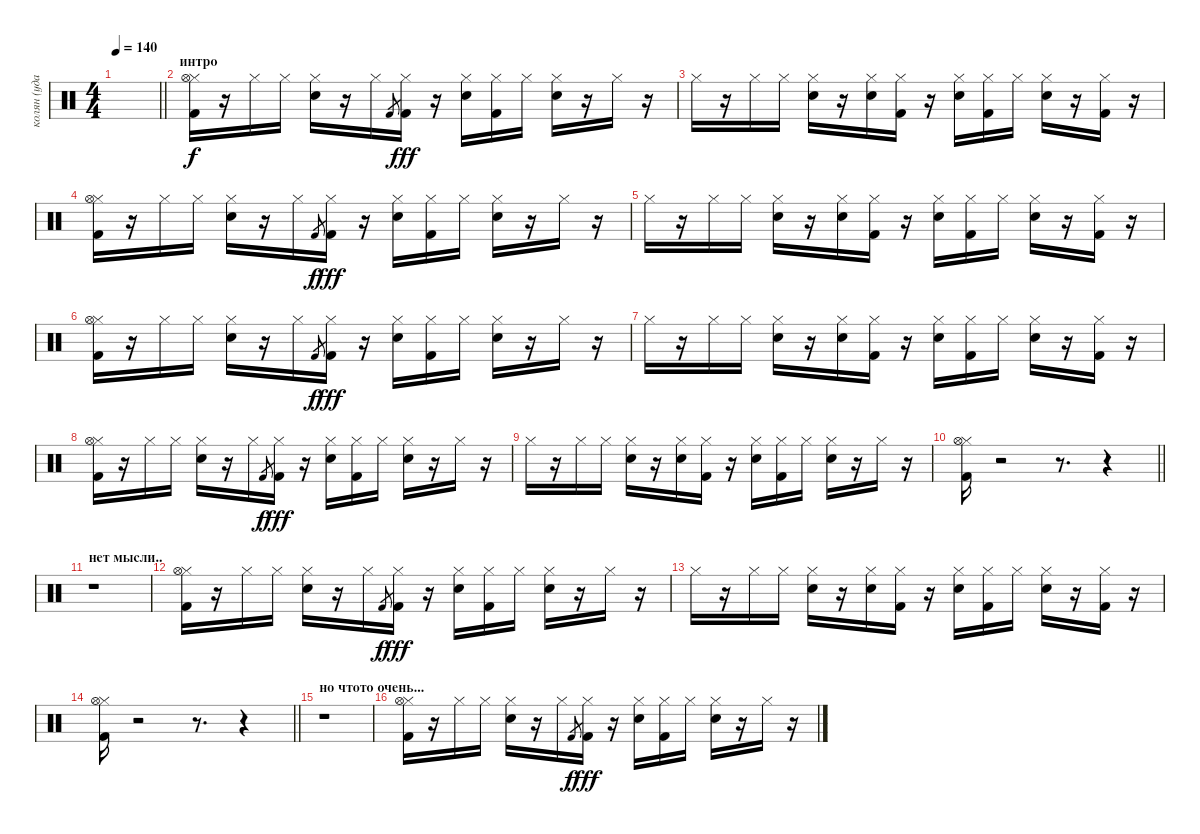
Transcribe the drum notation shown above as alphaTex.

\track ("колян (ударные)" "колян (уда") {instrument percussion}
\staff {score}
\articulation defaults
\ts (4 4)
\tempo 140
\clef neutral
\barLineRight lightlight
\ks c
|
\section ("" "интро")
("Hi-Hat (closed)" "Hi-Hat (open)" "Kick (hit) 2").16 r.16 "Hi-Hat (closed)".16 "Hi-Hat (closed)".16 ("Hi-Hat (closed)" "Electric Snare (hit)").16 r.16 "Hi-Hat (closed)".16 "Kick (hit) 2".8{gr dy f} ("Hi-Hat (closed)" "Kick (hit) 2").16{dy fff} r.16 ("Hi-Hat (closed)" "Electric Snare (hit)").16 ("Hi-Hat (closed)" "Kick (hit) 2").16 "Hi-Hat (closed)".16 ("Hi-Hat (closed)" "Electric Snare (hit)").16 r.16 "Hi-Hat (closed)".16 r.16 |
"Hi-Hat (closed)".16 r.16 "Hi-Hat (closed)".16 "Hi-Hat (closed)".16 ("Hi-Hat (closed)" "Electric Snare (hit)").16 r.16 ("Hi-Hat (closed)" "Electric Snare (hit)").16 ("Hi-Hat (closed)" "Kick (hit) 2").16 r.16 ("Hi-Hat (closed)" "Electric Snare (hit)").16 ("Hi-Hat (closed)" "Kick (hit) 2").16 "Hi-Hat (closed)".16 ("Hi-Hat (closed)" "Electric Snare (hit)").16 r.16 ("Hi-Hat (closed)" "Kick (hit) 2").16 r.16 |
("Hi-Hat (closed)" "Hi-Hat (open)" "Kick (hit) 2").16 r.16 "Hi-Hat (closed)".16 "Hi-Hat (closed)".16 ("Hi-Hat (closed)" "Electric Snare (hit)").16 r.16 "Hi-Hat (closed)".16 "Kick (hit) 2".8{gr dy f} ("Hi-Hat (closed)" "Kick (hit) 2").16{dy fff} r.16 ("Hi-Hat (closed)" "Electric Snare (hit)").16 ("Hi-Hat (closed)" "Kick (hit) 2").16 "Hi-Hat (closed)".16 ("Hi-Hat (closed)" "Electric Snare (hit)").16 r.16 "Hi-Hat (closed)".16 r.16 |
"Hi-Hat (closed)".16 r.16 "Hi-Hat (closed)".16 "Hi-Hat (closed)".16 ("Hi-Hat (closed)" "Electric Snare (hit)").16 r.16 ("Hi-Hat (closed)" "Electric Snare (hit)").16 ("Hi-Hat (closed)" "Kick (hit) 2").16 r.16 ("Hi-Hat (closed)" "Electric Snare (hit)").16 ("Hi-Hat (closed)" "Kick (hit) 2").16 "Hi-Hat (closed)".16 ("Hi-Hat (closed)" "Electric Snare (hit)").16 r.16 ("Hi-Hat (closed)" "Kick (hit) 2").16 r.16 |
("Hi-Hat (closed)" "Hi-Hat (open)" "Kick (hit) 2").16 r.16 "Hi-Hat (closed)".16 "Hi-Hat (closed)".16 ("Hi-Hat (closed)" "Electric Snare (hit)").16 r.16 "Hi-Hat (closed)".16 "Kick (hit) 2".8{gr dy f} ("Hi-Hat (closed)" "Kick (hit) 2").16{dy fff} r.16 ("Hi-Hat (closed)" "Electric Snare (hit)").16 ("Hi-Hat (closed)" "Kick (hit) 2").16 "Hi-Hat (closed)".16 ("Hi-Hat (closed)" "Electric Snare (hit)").16 r.16 "Hi-Hat (closed)".16 r.16 |
"Hi-Hat (closed)".16 r.16 "Hi-Hat (closed)".16 "Hi-Hat (closed)".16 ("Hi-Hat (closed)" "Electric Snare (hit)").16 r.16 ("Hi-Hat (closed)" "Electric Snare (hit)").16 ("Hi-Hat (closed)" "Kick (hit) 2").16 r.16 ("Hi-Hat (closed)" "Electric Snare (hit)").16 ("Hi-Hat (closed)" "Kick (hit) 2").16 "Hi-Hat (closed)".16 ("Hi-Hat (closed)" "Electric Snare (hit)").16 r.16 ("Hi-Hat (closed)" "Kick (hit) 2").16 r.16 |
("Hi-Hat (closed)" "Hi-Hat (open)" "Kick (hit) 2").16 r.16 "Hi-Hat (closed)".16 "Hi-Hat (closed)".16 ("Hi-Hat (closed)" "Electric Snare (hit)").16 r.16 "Hi-Hat (closed)".16 "Kick (hit) 2".8{gr dy f} ("Hi-Hat (closed)" "Kick (hit) 2").16{dy fff} r.16 ("Hi-Hat (closed)" "Electric Snare (hit)").16 ("Hi-Hat (closed)" "Kick (hit) 2").16 "Hi-Hat (closed)".16 ("Hi-Hat (closed)" "Electric Snare (hit)").16 r.16 "Hi-Hat (closed)".16 r.16 |
"Hi-Hat (closed)".16 r.16 "Hi-Hat (closed)".16 "Hi-Hat (closed)".16 ("Hi-Hat (closed)" "Electric Snare (hit)").16 r.16 ("Hi-Hat (closed)" "Electric Snare (hit)").16 ("Hi-Hat (closed)" "Kick (hit) 2").16 r.16 ("Hi-Hat (closed)" "Electric Snare (hit)").16 ("Hi-Hat (closed)" "Kick (hit) 2").16 "Hi-Hat (closed)".16 ("Hi-Hat (closed)" "Electric Snare (hit)").16 r.16 "Hi-Hat (closed)".16 r.16 |
\barLineRight lightlight
("Hi-Hat (closed)" "Hi-Hat (open)" "Kick (hit) 2").16 r.2 r.8{d} r.4 |
\section ("" "нет мысли..")
r.1 |
("Hi-Hat (closed)" "Hi-Hat (open)" "Kick (hit) 2").16 r.16 "Hi-Hat (closed)".16 "Hi-Hat (closed)".16 ("Hi-Hat (closed)" "Electric Snare (hit)").16 r.16 "Hi-Hat (closed)".16 "Kick (hit) 2".8{gr dy f} ("Hi-Hat (closed)" "Kick (hit) 2").16{dy fff} r.16 ("Hi-Hat (closed)" "Electric Snare (hit)").16 ("Hi-Hat (closed)" "Kick (hit) 2").16 "Hi-Hat (closed)".16 ("Hi-Hat (closed)" "Electric Snare (hit)").16 r.16 "Hi-Hat (closed)".16 r.16 |
"Hi-Hat (closed)".16 r.16 "Hi-Hat (closed)".16 "Hi-Hat (closed)".16 ("Hi-Hat (closed)" "Electric Snare (hit)").16 r.16 ("Hi-Hat (closed)" "Electric Snare (hit)").16 ("Hi-Hat (closed)" "Kick (hit) 2").16 r.16 ("Hi-Hat (closed)" "Electric Snare (hit)").16 ("Hi-Hat (closed)" "Kick (hit) 2").16 "Hi-Hat (closed)".16 ("Hi-Hat (closed)" "Electric Snare (hit)").16 r.16 ("Hi-Hat (closed)" "Kick (hit) 2").16 r.16 |
\barLineRight lightlight
("Hi-Hat (closed)" "Hi-Hat (open)" "Kick (hit) 2").16 r.2 r.8{d} r.4 |
\section ("" "но чтото очень...")
r.1 |
("Hi-Hat (closed)" "Hi-Hat (open)" "Kick (hit) 2").16 r.16 "Hi-Hat (closed)".16 "Hi-Hat (closed)".16 ("Hi-Hat (closed)" "Electric Snare (hit)").16 r.16 "Hi-Hat (closed)".16 "Kick (hit) 2".8{gr dy f} ("Hi-Hat (closed)" "Kick (hit) 2").16{dy fff} r.16 ("Hi-Hat (closed)" "Electric Snare (hit)").16 ("Hi-Hat (closed)" "Kick (hit) 2").16 "Hi-Hat (closed)".16 ("Hi-Hat (closed)" "Electric Snare (hit)").16 r.16 "Hi-Hat (closed)".16 r.16
